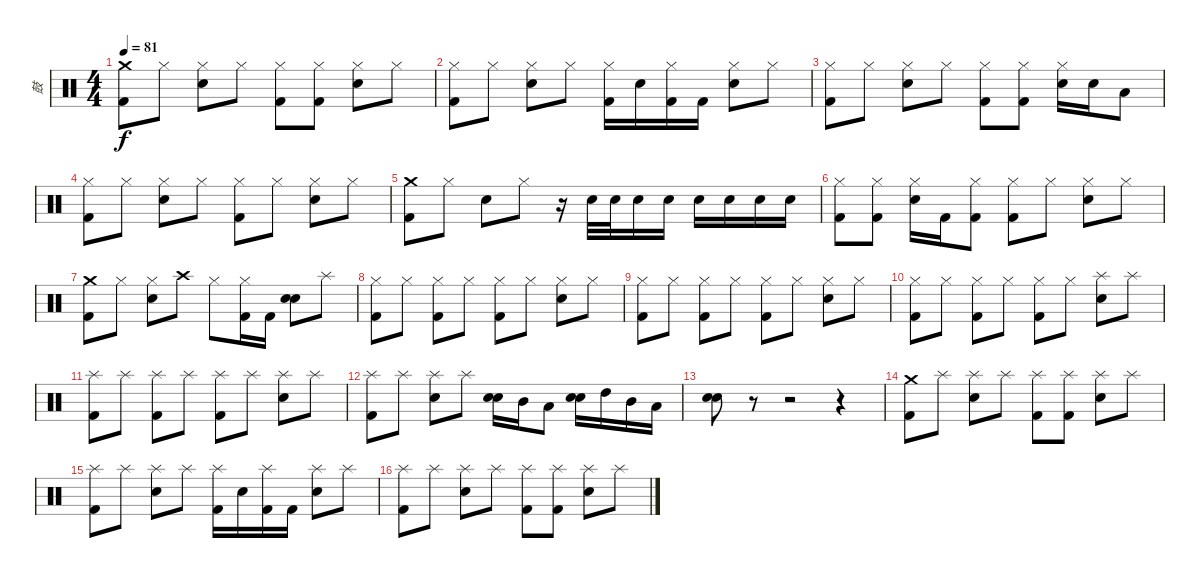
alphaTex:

\track ("鼓" "鼓") {instrument percussion}
\staff {score}
\articulation defaults
\ts (4 4)
\tempo 81
\clef neutral
\ks c
("Crash medium (hit)" "Kick (hit) 2").8{dy f} "Hi-Hat (closed)".8 ("Hi-Hat (closed)" "Snare (hit) 2").8 "Hi-Hat (closed)".8 ("Hi-Hat (closed)" "Kick (hit) 2").8 ("Hi-Hat (closed)" "Kick (hit) 2").8 ("Hi-Hat (closed)" "Snare (hit) 2").8 "Hi-Hat (closed)".8 |
("Hi-Hat (closed)" "Kick (hit) 2").8 "Hi-Hat (closed)".8 ("Hi-Hat (closed)" "Snare (hit) 2").8 "Hi-Hat (closed)".8 ("Hi-Hat (closed)" "Kick (hit) 2").16 "Snare (hit) 2".16 ("Hi-Hat (closed)" "Kick (hit) 2").16 "Kick (hit) 2".16 ("Hi-Hat (closed)" "Snare (hit) 2").8 "Hi-Hat (closed)".8 |
("Hi-Hat (closed)" "Kick (hit) 2").8 "Hi-Hat (closed)".8 ("Hi-Hat (closed)" "Snare (hit) 2").8 "Hi-Hat (closed)".8 ("Hi-Hat (closed)" "Kick (hit) 2").8 ("Hi-Hat (closed)" "Kick (hit) 2").8 ("Hi-Hat (closed)" "Snare (hit) 2").16 "Snare (hit) 2".16 "Low Tom (hit)".8 |
("Hi-Hat (closed)" "Kick (hit) 2").8 "Hi-Hat (closed)".8 ("Hi-Hat (closed)" "Snare (hit) 2").8 "Hi-Hat (closed)".8 ("Hi-Hat (closed)" "Kick (hit) 2").8 "Hi-Hat (closed)".8 ("Hi-Hat (closed)" "Snare (hit) 2").8 "Hi-Hat (closed)".8 |
("Crash medium (hit)" "Kick (hit) 2").8 "Hi-Hat (closed)".8 "Snare (hit) 2".8 "Hi-Hat (closed)".8 r.16 "Snare (hit) 2".32 "Snare (hit) 2".32 "Snare (hit) 2".16 "Snare (hit) 2".16 "Snare (hit) 2".16 "Snare (hit) 2".16 "Snare (hit) 2".16 "Snare (hit) 2".16 |
("Hi-Hat (closed)" "Kick (hit) 2").8 ("Hi-Hat (closed)" "Kick (hit) 2").8 ("Hi-Hat (closed)" "Snare (hit) 2").16 "Kick (hit) 2".16 ("Hi-Hat (closed)" "Kick (hit) 2").8 ("Hi-Hat (closed)" "Kick (hit) 2").8 "Hi-Hat (closed)".8 ("Hi-Hat (closed)" "Snare (hit) 2").8 "Hi-Hat (closed)".8 |
("Crash medium (hit)" "Kick (hit) 2").8 "Hi-Hat (closed)".8 ("Hi-Hat (closed)" "Snare (hit) 2").8 "Crash high (hit)".8 "Hi-Hat (closed)".8 ("Hi-Hat (closed)" "Kick (hit) 2").16 "Kick (hit) 2".16 ("Snare (hit) 2" "Snare (hit) 2").8 "Splash (hit)".8 |
("Hi-Hat (closed)" "Kick (hit) 2").8 "Hi-Hat (closed)".8 ("Hi-Hat (closed)" "Kick (hit) 2").8 "Hi-Hat (closed)".8 ("Hi-Hat (closed)" "Kick (hit) 2").8 "Hi-Hat (closed)".8 ("Hi-Hat (closed)" "Snare (hit) 2").8 "Hi-Hat (closed)".8 |
("Hi-Hat (closed)" "Kick (hit) 2").8 "Hi-Hat (closed)".8 ("Hi-Hat (closed)" "Kick (hit) 2").8 "Hi-Hat (closed)".8 ("Hi-Hat (closed)" "Kick (hit) 2").8 "Hi-Hat (closed)".8 ("Hi-Hat (closed)" "Snare (hit) 2").8 "Hi-Hat (closed)".8 |
("Hi-Hat (closed)" "Kick (hit) 2").8 "Hi-Hat (closed)".8 ("Hi-Hat (closed)" "Kick (hit) 2").8 "Hi-Hat (closed)".8 ("Hi-Hat (closed)" "Kick (hit) 2").8 "Hi-Hat (closed)".8 ("Splash (hit)" "Snare (hit) 2").8 "Splash (hit)".8 |
("Splash (hit)" "Kick (hit) 2").8 "Splash (hit)".8 ("Splash (hit)" "Kick (hit) 2").8 "Splash (hit)".8 ("Splash (hit)" "Kick (hit) 2").8 "Splash (hit)".8 ("Splash (hit)" "Snare (hit) 2").8 "Splash (hit)".8 |
("Splash (hit)" "Kick (hit) 2").8 "Splash (hit)".8 ("Splash (hit)" "Snare (hit) 2").8 "Splash (hit)".8 ("Snare (hit) 2" "Snare (hit) 2").16 "Mid Tom (hit)".16 "Low Tom (hit)".8 ("Snare (hit) 2" "Snare (hit) 2").16 "High Tom (hit)".16 "Mid Tom (hit)".16 "Low Tom (hit)".16 |
("Snare (hit) 2" "Snare (hit) 2").8 r.8 r.2 r.4 |
("Crash medium (hit)" "Kick (hit) 2").8 "Splash (hit)".8 ("Splash (hit)" "Snare (hit) 2").8 "Splash (hit)".8 ("Splash (hit)" "Kick (hit) 2").8 ("Splash (hit)" "Kick (hit) 2").8 ("Splash (hit)" "Snare (hit) 2").8 "Splash (hit)".8 |
("Splash (hit)" "Kick (hit) 2").8 "Splash (hit)".8 ("Splash (hit)" "Snare (hit) 2").8 "Splash (hit)".8 ("Splash (hit)" "Kick (hit) 2").16 "Snare (hit) 2".16 ("Splash (hit)" "Kick (hit) 2").16 "Kick (hit) 2".16 ("Splash (hit)" "Snare (hit) 2").8 "Splash (hit)".8 |
("Splash (hit)" "Kick (hit) 2").8 "Splash (hit)".8 ("Splash (hit)" "Snare (hit) 2").8 "Splash (hit)".8 ("Splash (hit)" "Kick (hit) 2").8 ("Splash (hit)" "Kick (hit) 2").8 ("Splash (hit)" "Snare (hit) 2").8 "Splash (hit)".8
